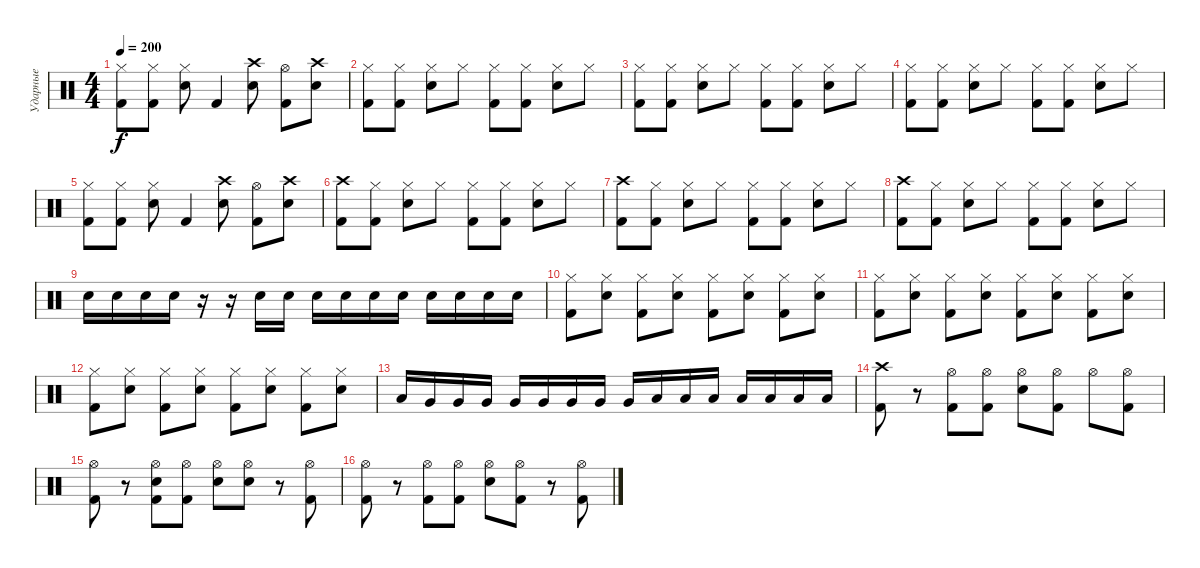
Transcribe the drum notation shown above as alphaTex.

\track ("Ударные" "Ударные") {instrument percussion}
\staff {score}
\articulation defaults
\ts (4 4)
\tempo 200
\clef neutral
\ks c
("Kick (hit) 2" "Hi-Hat (closed)").8{dy f} ("Kick (hit) 2" "Hi-Hat (closed)").8 ("Electric Snare (hit)" "Hi-Hat (closed)").8 "Kick (hit) 2".4 ("Electric Snare (hit)" "Crash high (hit)").8 ("Kick (hit) 2" "Hi-Hat (open)").8 ("Electric Snare (hit)" "Crash high (hit)").8 |
("Kick (hit) 2" "Hi-Hat (closed)").8 ("Kick (hit) 2" "Hi-Hat (closed)").8 ("Electric Snare (hit)" "Hi-Hat (closed)").8 "Hi-Hat (closed)".8 ("Kick (hit) 2" "Hi-Hat (closed)").8 ("Kick (hit) 2" "Hi-Hat (closed)").8 ("Electric Snare (hit)" "Hi-Hat (closed)").8 "Hi-Hat (closed)".8 |
("Kick (hit) 2" "Hi-Hat (closed)").8 ("Kick (hit) 2" "Hi-Hat (closed)").8 ("Electric Snare (hit)" "Hi-Hat (closed)").8 "Hi-Hat (closed)".8 ("Kick (hit) 2" "Hi-Hat (closed)").8 ("Kick (hit) 2" "Hi-Hat (closed)").8 ("Electric Snare (hit)" "Hi-Hat (closed)").8 "Hi-Hat (closed)".8 |
("Kick (hit) 2" "Hi-Hat (closed)").8 ("Kick (hit) 2" "Hi-Hat (closed)").8 ("Electric Snare (hit)" "Hi-Hat (closed)").8 "Hi-Hat (closed)".8 ("Kick (hit) 2" "Hi-Hat (closed)").8 ("Kick (hit) 2" "Hi-Hat (closed)").8 ("Electric Snare (hit)" "Hi-Hat (closed)").8 "Hi-Hat (closed)".8 |
("Kick (hit) 2" "Hi-Hat (closed)").8 ("Kick (hit) 2" "Hi-Hat (closed)").8 ("Electric Snare (hit)" "Hi-Hat (closed)").8 "Kick (hit) 2".4 ("Electric Snare (hit)" "Crash high (hit)").8 ("Kick (hit) 2" "Hi-Hat (open)").8 ("Electric Snare (hit)" "Crash high (hit)").8 |
("Kick (hit) 2" "Crash high (hit)").8 ("Kick (hit) 2" "Hi-Hat (closed)").8 ("Electric Snare (hit)" "Hi-Hat (closed)").8 "Hi-Hat (closed)".8 ("Kick (hit) 2" "Hi-Hat (closed)").8 ("Kick (hit) 2" "Hi-Hat (closed)").8 ("Electric Snare (hit)" "Hi-Hat (closed)").8 "Hi-Hat (closed)".8 |
("Kick (hit) 2" "Crash high (hit)").8 ("Kick (hit) 2" "Hi-Hat (closed)").8 ("Electric Snare (hit)" "Hi-Hat (closed)").8 "Hi-Hat (closed)".8 ("Kick (hit) 2" "Hi-Hat (closed)").8 ("Kick (hit) 2" "Hi-Hat (closed)").8 ("Electric Snare (hit)" "Hi-Hat (closed)").8 "Hi-Hat (closed)".8 |
("Kick (hit) 2" "Crash high (hit)").8 ("Kick (hit) 2" "Hi-Hat (closed)").8 ("Electric Snare (hit)" "Hi-Hat (closed)").8 "Hi-Hat (closed)".8 ("Kick (hit) 2" "Hi-Hat (closed)").8 ("Kick (hit) 2" "Hi-Hat (closed)").8 ("Electric Snare (hit)" "Hi-Hat (closed)").8 "Hi-Hat (closed)".8 |
"Electric Snare (hit)".16 "Electric Snare (hit)".16 "Electric Snare (hit)".16 "Electric Snare (hit)".16 r.16 r.16 "Electric Snare (hit)".16 "Electric Snare (hit)".16 "Electric Snare (hit)".16 "Electric Snare (hit)".16 "Electric Snare (hit)".16 "Electric Snare (hit)".16 "Electric Snare (hit)".16 "Electric Snare (hit)".16 "Electric Snare (hit)".16 "Electric Snare (hit)".16 |
("Kick (hit) 2" "Hi-Hat (closed)").8 ("Electric Snare (hit)" "Hi-Hat (closed)").8 ("Kick (hit) 2" "Hi-Hat (closed)").8 ("Electric Snare (hit)" "Hi-Hat (closed)").8 ("Kick (hit) 2" "Hi-Hat (closed)").8 ("Electric Snare (hit)" "Hi-Hat (closed)").8 ("Kick (hit) 2" "Hi-Hat (closed)").8 ("Electric Snare (hit)" "Hi-Hat (closed)").8 |
("Kick (hit) 2" "Hi-Hat (closed)").8 ("Electric Snare (hit)" "Hi-Hat (closed)").8 ("Kick (hit) 2" "Hi-Hat (closed)").8 ("Electric Snare (hit)" "Hi-Hat (closed)").8 ("Kick (hit) 2" "Hi-Hat (closed)").8 ("Electric Snare (hit)" "Hi-Hat (closed)").8 ("Kick (hit) 2" "Hi-Hat (closed)").8 ("Electric Snare (hit)" "Hi-Hat (closed)").8 |
("Kick (hit) 2" "Hi-Hat (closed)").8 ("Electric Snare (hit)" "Hi-Hat (closed)").8 ("Kick (hit) 2" "Hi-Hat (closed)").8 ("Electric Snare (hit)" "Hi-Hat (closed)").8 ("Kick (hit) 2" "Hi-Hat (closed)").8 ("Electric Snare (hit)" "Hi-Hat (closed)").8 ("Kick (hit) 2" "Hi-Hat (closed)").8 ("Electric Snare (hit)" "Hi-Hat (closed)").8 |
"Low Floor Tom (hit)".16 "Very Low Tom (hit)".16 "Very Low Tom (hit)".16 "Very Low Tom (hit)".16 "Very Low Tom (hit)".16 "Very Low Tom (hit)".16 "Very Low Tom (hit)".16 "Very Low Tom (hit)".16 "Very Low Tom (hit)".16 "Low Tom (hit)".16 "Low Tom (hit)".16 "Low Tom (hit)".16 "Low Tom (hit)".16 "Low Floor Tom (hit)".16 "Low Floor Tom (hit)".16 "Low Floor Tom (hit)".16 |
("Kick (hit) 2" "Crash high (hit)").8 r.8 ("Kick (hit) 2" "Hi-Hat (open)").8 ("Kick (hit) 2" "Hi-Hat (open)").8 ("Electric Snare (hit)" "Hi-Hat (open)").8 ("Kick (hit) 2" "Hi-Hat (open)").8 "Hi-Hat (open)".8 ("Kick (hit) 2" "Hi-Hat (open)").8 |
("Kick (hit) 2" "Hi-Hat (open)").8 r.8 ("Kick (hit) 2" "Hi-Hat (open)" "Snare (hit)").8 ("Kick (hit) 2" "Hi-Hat (open)").8 ("Electric Snare (hit)" "Hi-Hat (open)").8 ("Electric Snare (hit)" "Hi-Hat (open)").8 r.8 ("Kick (hit) 2" "Hi-Hat (open)").8 |
("Kick (hit) 2" "Hi-Hat (open)").8 r.8 ("Kick (hit) 2" "Hi-Hat (open)").8 ("Kick (hit) 2" "Hi-Hat (open)").8 ("Electric Snare (hit)" "Hi-Hat (open)").8 ("Kick (hit) 2" "Hi-Hat (open)").8 r.8 ("Kick (hit) 2" "Hi-Hat (open)").8
